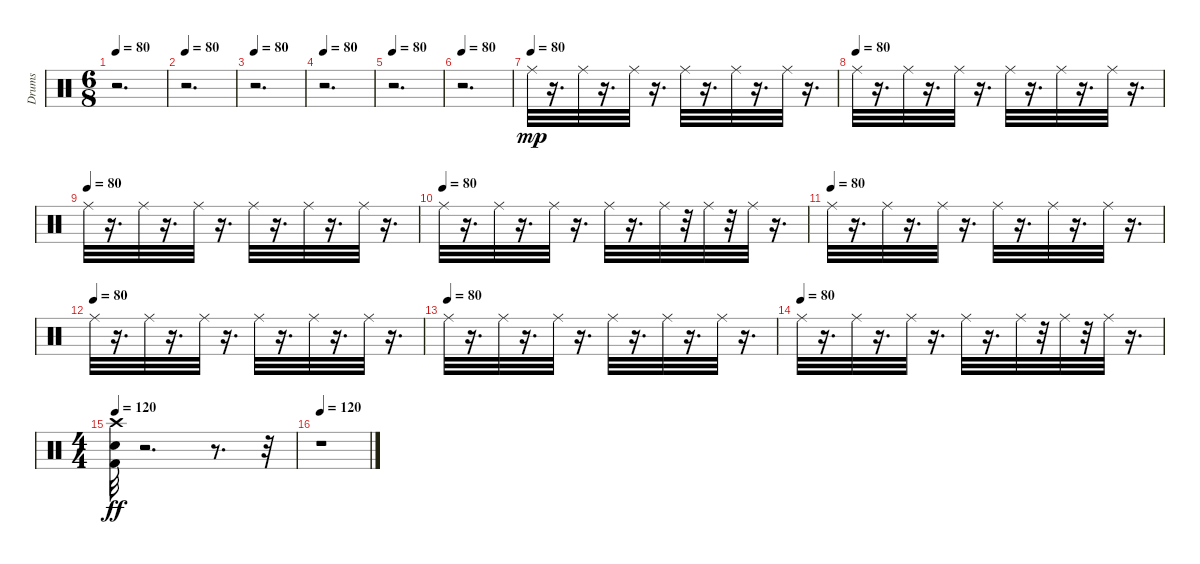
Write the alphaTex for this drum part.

\track ("Drums" "Drums") {instrument percussion}
\staff {score}
\articulation defaults
\ts (6 8)
\tempo 80
\clef neutral
\ks c
r.2{d dy ff} |
\tempo 80
r.2{d} |
\tempo 80
r.2{d} |
\tempo 80
r.2{d} |
\tempo 80
r.2{d} |
\tempo 80
r.2{d} |
\tempo (80)
"Ride (middle)".32{dy mp} r.16{d} "Ride (middle)".32 r.16{d} "Ride (middle)".32 r.16{d} "Ride (middle)".32 r.16{d} "Ride (middle)".32 r.16{d} "Ride (middle)".32 r.16{d} |
\tempo (80)
"Ride (middle)".32 r.16{d} "Ride (middle)".32 r.16{d} "Ride (middle)".32 r.16{d} "Ride (middle)".32 r.16{d} "Ride (middle)".32 r.16{d} "Ride (middle)".32 r.16{d} |
\tempo (80)
"Ride (middle)".32 r.16{d} "Ride (middle)".32 r.16{d} "Ride (middle)".32 r.16{d} "Ride (middle)".32 r.16{d} "Ride (middle)".32 r.16{d} "Ride (middle)".32 r.16{d} |
\tempo (80)
"Ride (middle)".32 r.16{d} "Ride (middle)".32 r.16{d} "Ride (middle)".32 r.16{d} "Ride (middle)".32 r.16{d} "Ride (middle)".32 r.32 "Ride (middle)".32 r.32 "Ride (middle)".32 r.16{d} |
\tempo (80)
"Ride (middle)".32 r.16{d} "Ride (middle)".32 r.16{d} "Ride (middle)".32 r.16{d} "Ride (middle)".32 r.16{d} "Ride (middle)".32 r.16{d} "Ride (middle)".32 r.16{d} |
\tempo (80)
"Ride (middle)".32 r.16{d} "Ride (middle)".32 r.16{d} "Ride (middle)".32 r.16{d} "Ride (middle)".32 r.16{d} "Ride (middle)".32 r.16{d} "Ride (middle)".32 r.16{d} |
\tempo (80)
"Ride (middle)".32 r.16{d} "Ride (middle)".32 r.16{d} "Ride (middle)".32 r.16{d} "Ride (middle)".32 r.16{d} "Ride (middle)".32 r.16{d} "Ride (middle)".32 r.16{d} |
\tempo (80)
"Ride (middle)".32 r.16{d} "Ride (middle)".32 r.16{d} "Ride (middle)".32 r.16{d} "Ride (middle)".32 r.16{d} "Ride (middle)".32 r.32 "Ride (middle)".32 r.32 "Ride (middle)".32 r.16{d} |
\ts (4 4)
\tempo 120
("Kick (hit) 2" "Snare (hit) 2" "Crash high (hit)").32{dy ff} r.2{d} r.8{d} r.32 |
\tempo 120
r.1
